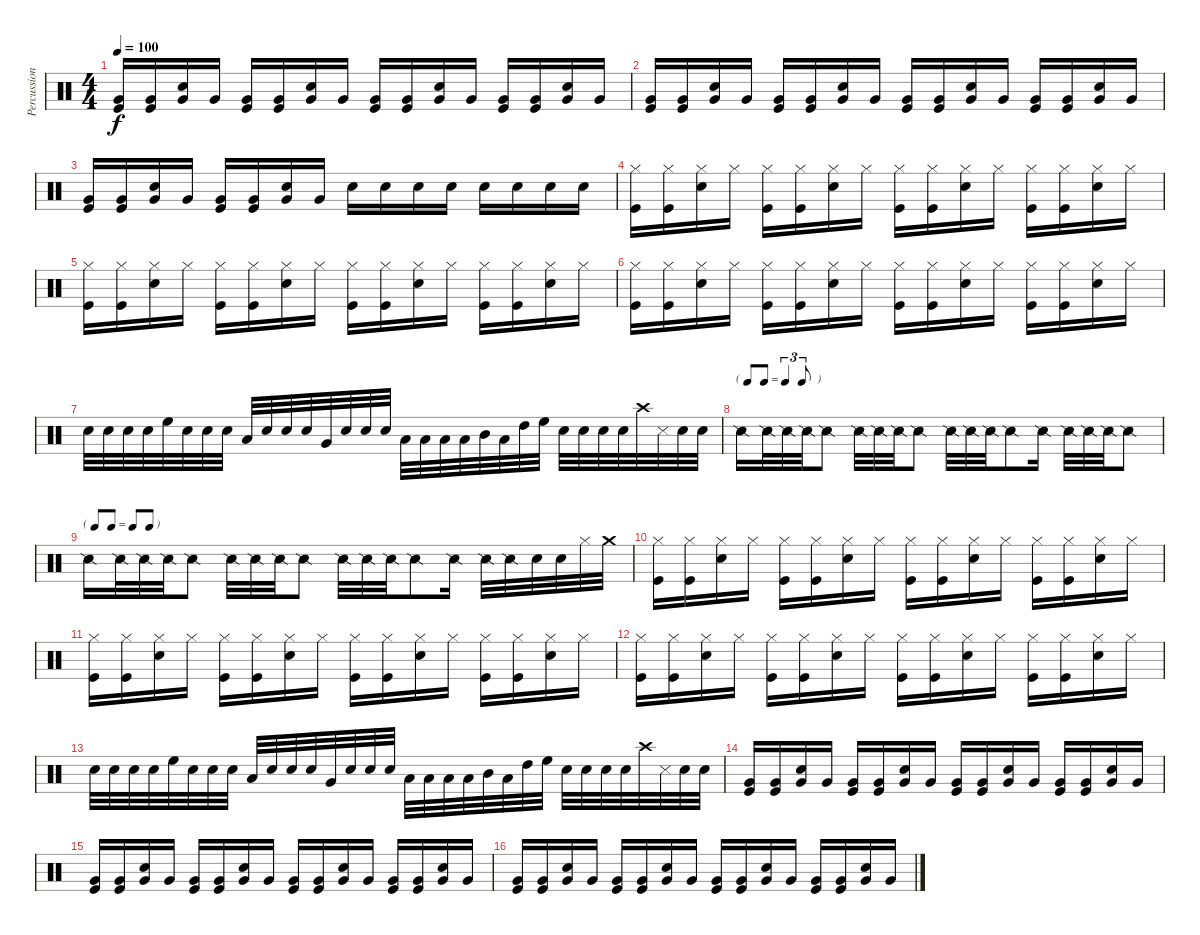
\track ("Percussion" "Percussion") {instrument percussion}
\staff {score}
\articulation defaults
\ts (4 4)
\tempo 100
\clef neutral
\ks c
("Very Low Tom (hit)" "Kick (hit)").16{dy f} ("Very Low Tom (hit)" "Kick (hit)").16 ("Very Low Tom (hit)" "Snare (hit) 2").16 "Very Low Tom (hit)".16 ("Very Low Tom (hit)" "Kick (hit)").16 ("Very Low Tom (hit)" "Kick (hit)").16 ("Very Low Tom (hit)" "Snare (hit) 2").16 "Very Low Tom (hit)".16 ("Very Low Tom (hit)" "Kick (hit)").16 ("Very Low Tom (hit)" "Kick (hit)").16 ("Very Low Tom (hit)" "Snare (hit) 2").16 "Very Low Tom (hit)".16 ("Very Low Tom (hit)" "Kick (hit)").16 ("Very Low Tom (hit)" "Kick (hit)").16 ("Very Low Tom (hit)" "Snare (hit) 2").16 "Very Low Tom (hit)".16 |
("Very Low Tom (hit)" "Kick (hit)").16 ("Very Low Tom (hit)" "Kick (hit)").16 ("Very Low Tom (hit)" "Snare (hit) 2").16 "Very Low Tom (hit)".16 ("Very Low Tom (hit)" "Kick (hit)").16 ("Very Low Tom (hit)" "Kick (hit)").16 ("Very Low Tom (hit)" "Snare (hit) 2").16 "Very Low Tom (hit)".16 ("Very Low Tom (hit)" "Kick (hit)").16 ("Very Low Tom (hit)" "Kick (hit)").16 ("Very Low Tom (hit)" "Snare (hit) 2").16 "Very Low Tom (hit)".16 ("Very Low Tom (hit)" "Kick (hit)").16 ("Very Low Tom (hit)" "Kick (hit)").16 ("Very Low Tom (hit)" "Snare (hit) 2").16 "Very Low Tom (hit)".16 |
("Very Low Tom (hit)" "Kick (hit)").16 ("Very Low Tom (hit)" "Kick (hit)").16 ("Very Low Tom (hit)" "Snare (hit) 2").16 "Very Low Tom (hit)".16 ("Very Low Tom (hit)" "Kick (hit)").16 ("Very Low Tom (hit)" "Kick (hit)").16 ("Very Low Tom (hit)" "Snare (hit) 2").16 "Very Low Tom (hit)".16 "Snare (hit) 2".16 "Snare (hit) 2".16 "Snare (hit) 2".16 "Snare (hit) 2".16 "Snare (hit) 2".16 "Snare (hit) 2".16 "Snare (hit) 2".16 "Snare (hit) 2".16 |
("Hi-Hat (closed)" "Kick (hit)").16 ("Hi-Hat (closed)" "Kick (hit)").16 ("Hi-Hat (closed)" "Snare (hit) 2").16 "Hi-Hat (closed)".16 ("Hi-Hat (closed)" "Kick (hit)").16 ("Hi-Hat (closed)" "Kick (hit)").16 ("Hi-Hat (closed)" "Snare (hit) 2").16 "Hi-Hat (closed)".16 ("Hi-Hat (closed)" "Kick (hit)").16 ("Hi-Hat (closed)" "Kick (hit)").16 ("Hi-Hat (closed)" "Snare (hit) 2").16 "Hi-Hat (closed)".16 ("Hi-Hat (closed)" "Kick (hit)").16 ("Hi-Hat (closed)" "Kick (hit)").16 ("Hi-Hat (closed)" "Snare (hit) 2").16 "Hi-Hat (closed)".16 |
("Hi-Hat (closed)" "Kick (hit)").16 ("Hi-Hat (closed)" "Kick (hit)").16 ("Hi-Hat (closed)" "Snare (hit) 2").16 "Hi-Hat (closed)".16 ("Hi-Hat (closed)" "Kick (hit)").16 ("Hi-Hat (closed)" "Kick (hit)").16 ("Hi-Hat (closed)" "Snare (hit) 2").16 "Hi-Hat (closed)".16 ("Hi-Hat (closed)" "Kick (hit)").16 ("Hi-Hat (closed)" "Kick (hit)").16 ("Hi-Hat (closed)" "Snare (hit) 2").16 "Hi-Hat (closed)".16 ("Hi-Hat (closed)" "Kick (hit)").16 ("Hi-Hat (closed)" "Kick (hit)").16 ("Hi-Hat (closed)" "Snare (hit) 2").16 "Hi-Hat (closed)".16 |
("Hi-Hat (closed)" "Kick (hit)").16 ("Hi-Hat (closed)" "Kick (hit)").16 ("Hi-Hat (closed)" "Snare (hit) 2").16 "Hi-Hat (closed)".16 ("Hi-Hat (closed)" "Kick (hit)").16 ("Hi-Hat (closed)" "Kick (hit)").16 ("Hi-Hat (closed)" "Snare (hit) 2").16 "Hi-Hat (closed)".16 ("Hi-Hat (closed)" "Kick (hit)").16 ("Hi-Hat (closed)" "Kick (hit)").16 ("Hi-Hat (closed)" "Snare (hit) 2").16 "Hi-Hat (closed)".16 ("Hi-Hat (closed)" "Kick (hit)").16 ("Hi-Hat (closed)" "Kick (hit)").16 ("Hi-Hat (closed)" "Snare (hit) 2").16 "Hi-Hat (closed)".16 |
"Snare (hit) 2".32 "Snare (hit) 2".32 "Snare (hit) 2".32 "Snare (hit) 2".32 "High Floor Tom (hit)".32 "Snare (hit) 2".32 "Snare (hit) 2".32 "Snare (hit) 2".32 "Low Tom (hit)".32 "Snare (hit) 2".32 "Snare (hit) 2".32 "Snare (hit) 2".32 "Very Low Tom (hit)".32 "Snare (hit) 2".32 "Snare (hit) 2".32 "Snare (hit) 2".32 "Low Floor Tom (hit)".32 "Low Floor Tom (hit)".32 "Low Floor Tom (hit)".32 "Low Floor Tom (hit)".32 "Mid Tom (hit)".32 "Low Tom (hit)".32 "High Tom (hit)".32 "High Floor Tom (hit)".32 "Snare (hit) 2".32 "Snare (hit) 2".32 "Snare (hit) 2".32 "Snare (hit) 2".32 "Crash high (hit)".32 "Snare (side stick) 3".32 "Snare (hit) 2".32 "Snare (hit) 2".32 |
\tf triplet8th "Snare (side stick) 2".16 "Snare (side stick) 2".32 "Snare (side stick) 2".32 "Snare (side stick) 2".32 "Snare (side stick) 2".8 "Snare (side stick) 2".32 "Snare (side stick) 2".32 "Snare (side stick) 2".32 "Snare (side stick) 2".8 "Snare (side stick) 2".32 "Snare (side stick) 2".32 "Snare (side stick) 2".32 "Snare (side stick) 2".8 "Snare (side stick) 2".16 "Snare (side stick) 2".32 "Snare (side stick) 2".32 "Snare (side stick) 2".32 "Snare (side stick) 2".8
|
\tf none "Snare (side stick) 2".16 "Snare (side stick) 2".32 "Snare (side stick) 2".32 "Snare (side stick) 2".32 "Snare (side stick) 2".8 "Snare (side stick) 2".32 "Snare (side stick) 2".32 "Snare (side stick) 2".32 "Snare (side stick) 2".8 "Snare (side stick) 2".32 "Snare (side stick) 2".32 "Snare (side stick) 2".32 "Snare (side stick) 2".8 "Snare (side stick) 2".16 "Snare (side stick) 2".32 "Snare (side stick) 2".32 "Electric Snare (hit)".32 "Electric Snare (hit)".32 "Hi-Hat (closed)".32 "Crash medium (hit)".32
|
("Hi-Hat (closed)" "Kick (hit)").16 ("Hi-Hat (closed)" "Kick (hit)").16 ("Hi-Hat (closed)" "Snare (hit) 2").16 "Hi-Hat (closed)".16 ("Hi-Hat (closed)" "Kick (hit)").16 ("Hi-Hat (closed)" "Kick (hit)").16 ("Hi-Hat (closed)" "Snare (hit) 2").16 "Hi-Hat (closed)".16 ("Hi-Hat (closed)" "Kick (hit)").16 ("Hi-Hat (closed)" "Kick (hit)").16 ("Hi-Hat (closed)" "Snare (hit) 2").16 "Hi-Hat (closed)".16 ("Hi-Hat (closed)" "Kick (hit)").16 ("Hi-Hat (closed)" "Kick (hit)").16 ("Hi-Hat (closed)" "Snare (hit) 2").16 "Hi-Hat (closed)".16 |
("Hi-Hat (closed)" "Kick (hit)").16 ("Hi-Hat (closed)" "Kick (hit)").16 ("Hi-Hat (closed)" "Snare (hit) 2").16 "Hi-Hat (closed)".16 ("Hi-Hat (closed)" "Kick (hit)").16 ("Hi-Hat (closed)" "Kick (hit)").16 ("Hi-Hat (closed)" "Snare (hit) 2").16 "Hi-Hat (closed)".16 ("Hi-Hat (closed)" "Kick (hit)").16 ("Hi-Hat (closed)" "Kick (hit)").16 ("Hi-Hat (closed)" "Snare (hit) 2").16 "Hi-Hat (closed)".16 ("Hi-Hat (closed)" "Kick (hit)").16 ("Hi-Hat (closed)" "Kick (hit)").16 ("Hi-Hat (closed)" "Snare (hit) 2").16 "Hi-Hat (closed)".16 |
("Hi-Hat (closed)" "Kick (hit)").16 ("Hi-Hat (closed)" "Kick (hit)").16 ("Hi-Hat (closed)" "Snare (hit) 2").16 "Hi-Hat (closed)".16 ("Hi-Hat (closed)" "Kick (hit)").16 ("Hi-Hat (closed)" "Kick (hit)").16 ("Hi-Hat (closed)" "Snare (hit) 2").16 "Hi-Hat (closed)".16 ("Hi-Hat (closed)" "Kick (hit)").16 ("Hi-Hat (closed)" "Kick (hit)").16 ("Hi-Hat (closed)" "Snare (hit) 2").16 "Hi-Hat (closed)".16 ("Hi-Hat (closed)" "Kick (hit)").16 ("Hi-Hat (closed)" "Kick (hit)").16 ("Hi-Hat (closed)" "Snare (hit) 2").16 "Hi-Hat (closed)".16 |
"Snare (hit) 2".32 "Snare (hit) 2".32 "Snare (hit) 2".32 "Snare (hit) 2".32 "High Floor Tom (hit)".32 "Snare (hit) 2".32 "Snare (hit) 2".32 "Snare (hit) 2".32 "Low Tom (hit)".32 "Snare (hit) 2".32 "Snare (hit) 2".32 "Snare (hit) 2".32 "Very Low Tom (hit)".32 "Snare (hit) 2".32 "Snare (hit) 2".32 "Snare (hit) 2".32 "Low Floor Tom (hit)".32 "Low Floor Tom (hit)".32 "Low Floor Tom (hit)".32 "Low Floor Tom (hit)".32 "Mid Tom (hit)".32 "Low Tom (hit)".32 "High Tom (hit)".32 "High Floor Tom (hit)".32 "Snare (hit) 2".32 "Snare (hit) 2".32 "Snare (hit) 2".32 "Snare (hit) 2".32 "Crash high (hit)".32 "Snare (side stick) 3".32 "Snare (hit) 2".32 "Snare (hit) 2".32 |
("Very Low Tom (hit)" "Kick (hit)").16 ("Very Low Tom (hit)" "Kick (hit)").16 ("Very Low Tom (hit)" "Snare (hit) 2").16 "Very Low Tom (hit)".16 ("Very Low Tom (hit)" "Kick (hit)").16 ("Very Low Tom (hit)" "Kick (hit)").16 ("Very Low Tom (hit)" "Snare (hit) 2").16 "Very Low Tom (hit)".16 ("Very Low Tom (hit)" "Kick (hit)").16 ("Very Low Tom (hit)" "Kick (hit)").16 ("Very Low Tom (hit)" "Snare (hit) 2").16 "Very Low Tom (hit)".16 ("Very Low Tom (hit)" "Kick (hit)").16 ("Very Low Tom (hit)" "Kick (hit)").16 ("Very Low Tom (hit)" "Snare (hit) 2").16 "Very Low Tom (hit)".16 |
("Very Low Tom (hit)" "Kick (hit)").16 ("Very Low Tom (hit)" "Kick (hit)").16 ("Very Low Tom (hit)" "Snare (hit) 2").16 "Very Low Tom (hit)".16 ("Very Low Tom (hit)" "Kick (hit)").16 ("Very Low Tom (hit)" "Kick (hit)").16 ("Very Low Tom (hit)" "Snare (hit) 2").16 "Very Low Tom (hit)".16 ("Very Low Tom (hit)" "Kick (hit)").16 ("Very Low Tom (hit)" "Kick (hit)").16 ("Very Low Tom (hit)" "Snare (hit) 2").16 "Very Low Tom (hit)".16 ("Very Low Tom (hit)" "Kick (hit)").16 ("Very Low Tom (hit)" "Kick (hit)").16 ("Very Low Tom (hit)" "Snare (hit) 2").16 "Very Low Tom (hit)".16 |
("Very Low Tom (hit)" "Kick (hit)").16 ("Very Low Tom (hit)" "Kick (hit)").16 ("Very Low Tom (hit)" "Snare (hit) 2").16 "Very Low Tom (hit)".16 ("Very Low Tom (hit)" "Kick (hit)").16 ("Very Low Tom (hit)" "Kick (hit)").16 ("Very Low Tom (hit)" "Snare (hit) 2").16 "Very Low Tom (hit)".16 ("Very Low Tom (hit)" "Kick (hit)").16 ("Very Low Tom (hit)" "Kick (hit)").16 ("Very Low Tom (hit)" "Snare (hit) 2").16 "Very Low Tom (hit)".16 ("Very Low Tom (hit)" "Kick (hit)").16 ("Very Low Tom (hit)" "Kick (hit)").16 ("Very Low Tom (hit)" "Snare (hit) 2").16 "Very Low Tom (hit)".16
